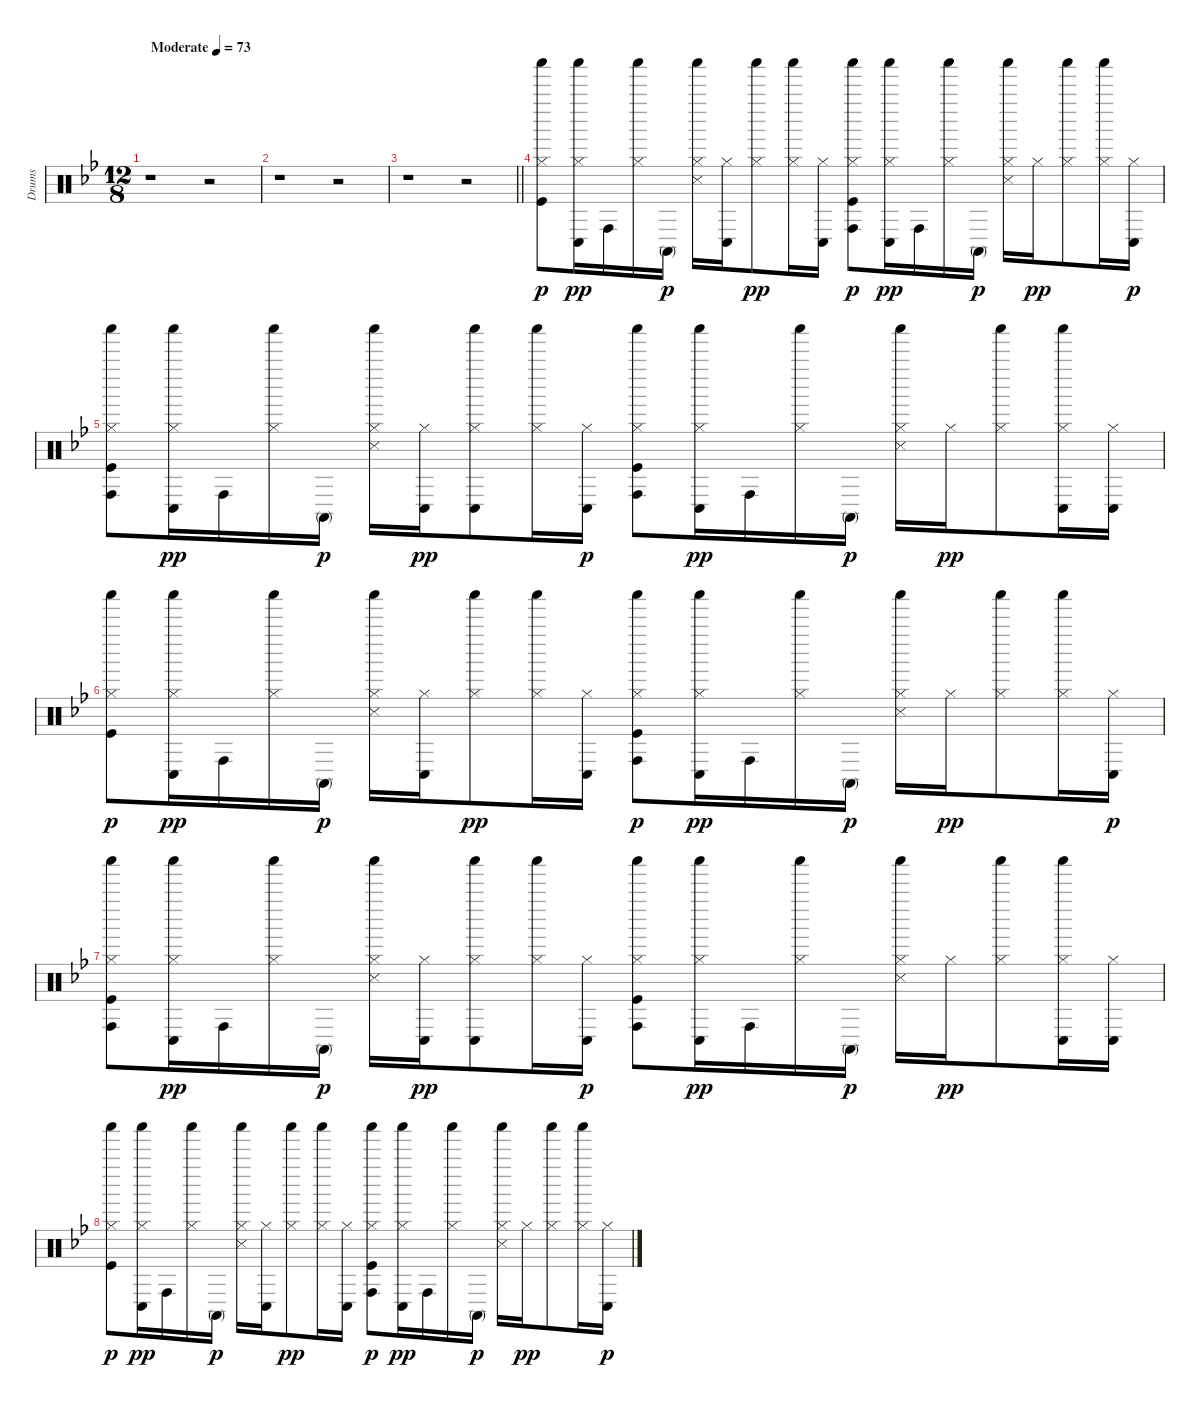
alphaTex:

\track ("Drums" "Drums") {instrument percussion}
\staff {score}
\articulation defaults
\ts (12 8)
\tempo (73 "Moderate")
\clef neutral
\ks bb
r.1{dy p} r.2 |
r.1 r.2 |
\barLineRight lightlight
r.1 r.2 |
("Kick (hit)" "Hi-Hat (closed)" "Shaker (hit)").8 ("Hi-Hat (closed)" "Conga low (hit)" "Shaker (hit)").16{dy pp} "Conga high (hit)".16 ("Hi-Hat (closed)" "Shaker (hit)").16 "Conga high (mute)".16{dy p} ("Snare (side stick) 3" "Hi-Hat (closed)" "Shaker (hit)").16 ("Hi-Hat (closed)" "Conga low (hit)").16 ("Hi-Hat (closed)" "Shaker (hit)").8{dy pp} ("Hi-Hat (closed)" "Shaker (hit)").16 ("Hi-Hat (closed)" "Conga low (hit)").16 ("Kick (hit)" "Hi-Hat (closed)" "Conga high (hit)" "Shaker (hit)").8{dy p} ("Hi-Hat (closed)" "Conga low (hit)" "Shaker (hit)").16{dy pp} "Conga high (hit)".16 ("Hi-Hat (closed)" "Shaker (hit)").16 "Conga high (mute)".16{dy p} ("Snare (side stick) 3" "Hi-Hat (closed)" "Shaker (hit)").16 "Hi-Hat (closed)".16{dy pp} ("Hi-Hat (closed)" "Shaker (hit)").8 ("Hi-Hat (closed)" "Shaker (hit)").16 ("Hi-Hat (closed)" "Conga low (hit)").16{dy p} |
("Kick (hit)" "Hi-Hat (closed)" "Conga high (hit)" "Shaker (hit)").8 ("Hi-Hat (closed)" "Conga low (hit)" "Shaker (hit)").16{dy pp} "Conga high (hit)".16 ("Hi-Hat (closed)" "Shaker (hit)").16 "Conga high (mute)".16{dy p} ("Snare (side stick) 3" "Hi-Hat (closed)" "Shaker (hit)").16 ("Hi-Hat (closed)" "Conga low (hit)").16{dy pp} ("Hi-Hat (closed)" "Conga low (hit)" "Shaker (hit)").8 ("Hi-Hat (closed)" "Shaker (hit)").16 ("Hi-Hat (closed)" "Conga low (hit)").16{dy p} ("Kick (hit)" "Hi-Hat (closed)" "Conga high (hit)" "Shaker (hit)").8 ("Hi-Hat (closed)" "Conga low (hit)" "Shaker (hit)").16{dy pp} "Conga high (hit)".16 ("Hi-Hat (closed)" "Shaker (hit)").16 "Conga high (mute)".16{dy p} ("Snare (side stick) 3" "Hi-Hat (closed)" "Shaker (hit)").16 "Hi-Hat (closed)".16{dy pp} ("Hi-Hat (closed)" "Shaker (hit)").8 ("Hi-Hat (closed)" "Conga low (hit)" "Shaker (hit)").16 ("Hi-Hat (closed)" "Conga low (hit)").16 |
("Kick (hit)" "Hi-Hat (closed)" "Shaker (hit)").8{dy p} ("Hi-Hat (closed)" "Conga low (hit)" "Shaker (hit)").16{dy pp} "Conga high (hit)".16 ("Hi-Hat (closed)" "Shaker (hit)").16 "Conga high (mute)".16{dy p} ("Snare (side stick) 3" "Hi-Hat (closed)" "Shaker (hit)").16 ("Hi-Hat (closed)" "Conga low (hit)").16 ("Hi-Hat (closed)" "Shaker (hit)").8{dy pp} ("Hi-Hat (closed)" "Shaker (hit)").16 ("Hi-Hat (closed)" "Conga low (hit)").16 ("Kick (hit)" "Hi-Hat (closed)" "Conga high (hit)" "Shaker (hit)").8{dy p} ("Hi-Hat (closed)" "Conga low (hit)" "Shaker (hit)").16{dy pp} "Conga high (hit)".16 ("Hi-Hat (closed)" "Shaker (hit)").16 "Conga high (mute)".16{dy p} ("Snare (side stick) 3" "Hi-Hat (closed)" "Shaker (hit)").16 "Hi-Hat (closed)".16{dy pp} ("Hi-Hat (closed)" "Shaker (hit)").8 ("Hi-Hat (closed)" "Shaker (hit)").16 ("Hi-Hat (closed)" "Conga low (hit)").16{dy p} |
("Kick (hit)" "Hi-Hat (closed)" "Conga high (hit)" "Shaker (hit)").8 ("Hi-Hat (closed)" "Conga low (hit)" "Shaker (hit)").16{dy pp} "Conga high (hit)".16 ("Hi-Hat (closed)" "Shaker (hit)").16 "Conga high (mute)".16{dy p} ("Snare (side stick) 3" "Hi-Hat (closed)" "Shaker (hit)").16 ("Hi-Hat (closed)" "Conga low (hit)").16{dy pp} ("Hi-Hat (closed)" "Conga low (hit)" "Shaker (hit)").8 ("Hi-Hat (closed)" "Shaker (hit)").16 ("Hi-Hat (closed)" "Conga low (hit)").16{dy p} ("Kick (hit)" "Hi-Hat (closed)" "Conga high (hit)" "Shaker (hit)").8 ("Hi-Hat (closed)" "Conga low (hit)" "Shaker (hit)").16{dy pp} "Conga high (hit)".16 ("Hi-Hat (closed)" "Shaker (hit)").16 "Conga high (mute)".16{dy p} ("Snare (side stick) 3" "Hi-Hat (closed)" "Shaker (hit)").16 "Hi-Hat (closed)".16{dy pp} ("Hi-Hat (closed)" "Shaker (hit)").8 ("Hi-Hat (closed)" "Conga low (hit)" "Shaker (hit)").16 ("Hi-Hat (closed)" "Conga low (hit)").16 |
("Kick (hit)" "Hi-Hat (closed)" "Shaker (hit)").8{dy p} ("Hi-Hat (closed)" "Conga low (hit)" "Shaker (hit)").16{dy pp} "Conga high (hit)".16 ("Hi-Hat (closed)" "Shaker (hit)").16 "Conga high (mute)".16{dy p} ("Snare (side stick) 3" "Hi-Hat (closed)" "Shaker (hit)").16 ("Hi-Hat (closed)" "Conga low (hit)").16 ("Hi-Hat (closed)" "Shaker (hit)").8{dy pp} ("Hi-Hat (closed)" "Shaker (hit)").16 ("Hi-Hat (closed)" "Conga low (hit)").16 ("Kick (hit)" "Hi-Hat (closed)" "Conga high (hit)" "Shaker (hit)").8{dy p} ("Hi-Hat (closed)" "Conga low (hit)" "Shaker (hit)").16{dy pp} "Conga high (hit)".16 ("Hi-Hat (closed)" "Shaker (hit)").16 "Conga high (mute)".16{dy p} ("Snare (side stick) 3" "Hi-Hat (closed)" "Shaker (hit)").16 "Hi-Hat (closed)".16{dy pp} ("Hi-Hat (closed)" "Shaker (hit)").8 ("Hi-Hat (closed)" "Shaker (hit)").16 ("Hi-Hat (closed)" "Conga low (hit)").16{dy p}
